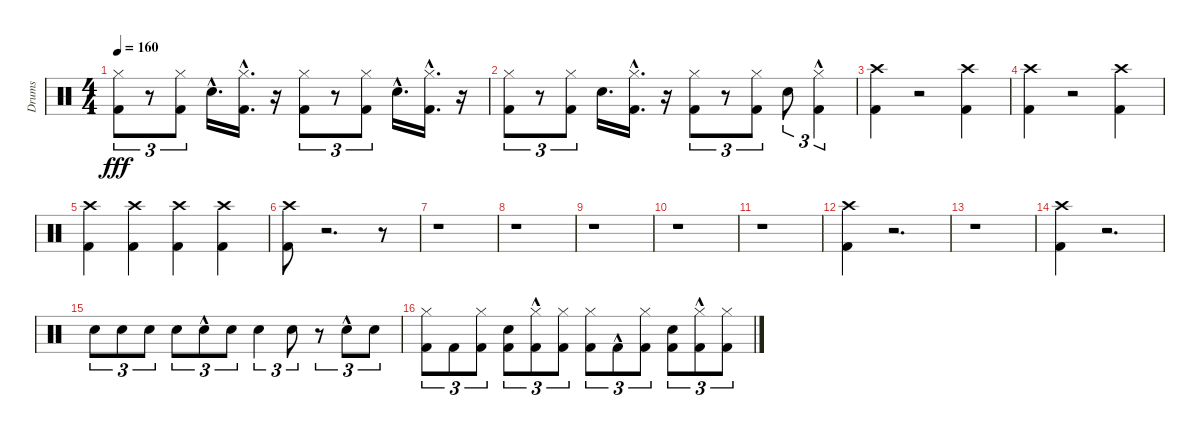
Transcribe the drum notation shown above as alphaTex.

\track ("Drums" "Drums") {instrument percussion}
\staff {score}
\articulation defaults
\ts (4 4)
\tempo 160
\clef neutral
\ks c
("Kick (hit) 2" "Hi-Hat (closed)").8{tu (3 2) dy fff} r.8{tu (3 2)} ("Kick (hit) 2" "Hi-Hat (closed)").8{tu (3 2)} "Snare (hit) 2"{hac}.16{d} ("Kick (hit) 2"{hac} "Hi-Hat (closed)"{hac}).16{d} r.16 ("Kick (hit) 2" "Hi-Hat (closed)").8{tu (3 2)} r.8{tu (3 2)} ("Kick (hit) 2" "Hi-Hat (closed)").8{tu (3 2)} "Snare (hit) 2"{hac}.16{d} ("Kick (hit) 2"{hac} "Hi-Hat (closed)"{hac}).16{d} r.16 |
("Kick (hit) 2" "Hi-Hat (closed)").8{tu (3 2)} r.8{tu (3 2)} ("Kick (hit) 2" "Hi-Hat (closed)").8{tu (3 2)} "Snare (hit) 2".16{d} ("Kick (hit) 2"{hac} "Hi-Hat (closed)"{hac}).16{d} r.16 ("Kick (hit) 2" "Hi-Hat (closed)").8{tu (3 2)} r.8{tu (3 2)} ("Kick (hit) 2" "Hi-Hat (closed)").8{tu (3 2)} "Snare (hit) 2".8{tu (3 2)} ("Kick (hit) 2"{hac} "Hi-Hat (closed)").4{tu (3 2)} |
("Crash high (hit)" "Kick (hit) 2").4 r.2 ("Crash high (hit)" "Kick (hit) 2").4 |
("Crash high (hit)" "Kick (hit) 2").4 r.2 ("Crash high (hit)" "Kick (hit) 2").4 |
("Kick (hit) 2" "Crash high (hit)").4 ("Kick (hit) 2" "Crash high (hit)").4 ("Kick (hit) 2" "Crash high (hit)").4 ("Kick (hit) 2" "Crash high (hit)").4 |
("Kick (hit) 2" "Crash high (hit)").8 r.2{d} r.8 |
r.1 |
r.1 |
r.1 |
r.1 |
r.1 |
("Kick (hit) 2" "Crash high (hit)").4 r.2{d} |
r.1 |
("Kick (hit) 2" "Crash high (hit)").4 r.2{d} |
"Snare (hit) 2".8{tu (3 2)} "Snare (hit) 2".8{tu (3 2)} "Snare (hit) 2".8{tu (3 2)} "Snare (hit) 2".8{tu (3 2)} "Snare (hit) 2"{hac}.8{tu (3 2)} "Snare (hit) 2".8{tu (3 2)} "Snare (hit) 2".4{tu (3 2)} "Snare (hit) 2".8{tu (3 2)} r.8{tu (3 2)} "Snare (hit) 2"{hac}.8{tu (3 2)} "Snare (hit) 2".8{tu (3 2)} |
("Kick (hit) 2" "Hi-Hat (closed)").8{tu (3 2)} "Kick (hit) 2".8{tu (3 2)} ("Kick (hit) 2" "Hi-Hat (closed)").8{tu (3 2)} ("Kick (hit) 2" "Snare (hit) 2").8{tu (3 2)} ("Kick (hit) 2"{hac} "Hi-Hat (closed)"{hac}).8{tu (3 2)} ("Kick (hit) 2" "Hi-Hat (closed)").8{tu (3 2)} ("Kick (hit) 2" "Hi-Hat (closed)").8{tu (3 2)} "Kick (hit) 2"{hac}.8{tu (3 2)} ("Kick (hit) 2" "Hi-Hat (closed)").8{tu (3 2)} ("Kick (hit) 2" "Snare (hit) 2").8{tu (3 2)} ("Kick (hit) 2"{hac} "Hi-Hat (closed)"{hac}).8{tu (3 2)} ("Kick (hit) 2" "Hi-Hat (closed)").8{tu (3 2)}
